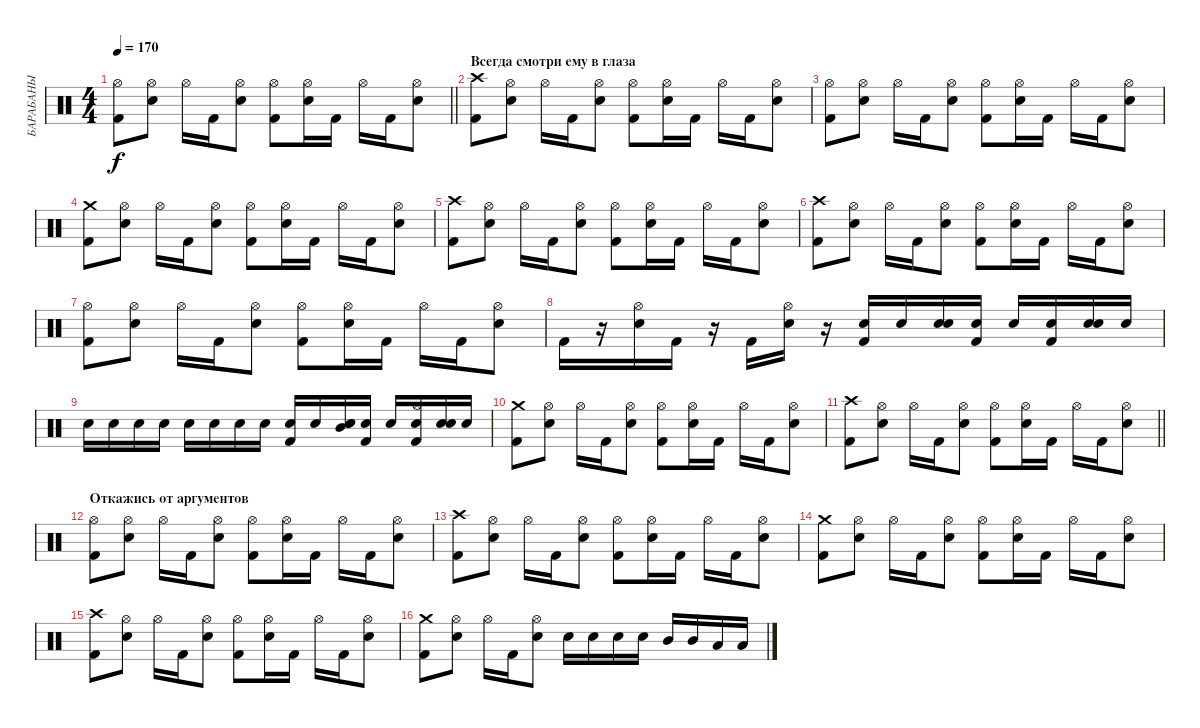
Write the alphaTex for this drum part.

\track ("БАРАБАНЫ" "БАРАБАНЫ") {instrument percussion}
\staff {score}
\articulation defaults
\ts (4 4)
\tempo 170
\clef neutral
\barLineRight lightlight
\ks c
("Kick (hit) 2" "Hi-Hat (open)").8{dy f} ("Electric Snare (hit)" "Hi-Hat (open)").8 "Hi-Hat (open)".16 "Kick (hit) 2".16 ("Electric Snare (hit)" "Hi-Hat (open)").8 ("Kick (hit) 2" "Hi-Hat (open)").8 ("Electric Snare (hit)" "Hi-Hat (open)").16 "Kick (hit) 2".16 "Hi-Hat (open)".16 "Kick (hit) 2".16 ("Electric Snare (hit)" "Hi-Hat (open)").8 |
\section ("" "Всегда смотри ему в глаза")
("Kick (hit) 2" "Crash high (hit)").8 ("Electric Snare (hit)" "Hi-Hat (open)").8 "Hi-Hat (open)".16 "Kick (hit) 2".16 ("Electric Snare (hit)" "Hi-Hat (open)").8 ("Kick (hit) 2" "Hi-Hat (open)").8 ("Electric Snare (hit)" "Hi-Hat (open)").16 "Kick (hit) 2".16 "Hi-Hat (open)".16 "Kick (hit) 2".16 ("Electric Snare (hit)" "Hi-Hat (open)").8 |
("Kick (hit) 2" "Hi-Hat (open)").8 ("Electric Snare (hit)" "Hi-Hat (open)").8 "Hi-Hat (open)".16 "Kick (hit) 2".16 ("Electric Snare (hit)" "Hi-Hat (open)").8 ("Kick (hit) 2" "Hi-Hat (open)").8 ("Electric Snare (hit)" "Hi-Hat (open)").16 "Kick (hit) 2".16 "Hi-Hat (open)".16 "Kick (hit) 2".16 ("Electric Snare (hit)" "Hi-Hat (open)").8 |
("Kick (hit) 2" "Crash medium (hit)").8 ("Electric Snare (hit)" "Hi-Hat (open)").8 "Hi-Hat (open)".16 "Kick (hit) 2".16 ("Electric Snare (hit)" "Hi-Hat (open)").8 ("Kick (hit) 2" "Hi-Hat (open)").8 ("Electric Snare (hit)" "Hi-Hat (open)").16 "Kick (hit) 2".16 "Hi-Hat (open)".16 "Kick (hit) 2".16 ("Electric Snare (hit)" "Hi-Hat (open)").8 |
("Kick (hit) 2" "Crash high (hit)").8 ("Electric Snare (hit)" "Hi-Hat (open)").8 "Hi-Hat (open)".16 "Kick (hit) 2".16 ("Electric Snare (hit)" "Hi-Hat (open)").8 ("Kick (hit) 2" "Hi-Hat (open)").8 ("Electric Snare (hit)" "Hi-Hat (open)").16 "Kick (hit) 2".16 "Hi-Hat (open)".16 "Kick (hit) 2".16 ("Electric Snare (hit)" "Hi-Hat (open)").8 |
("Kick (hit) 2" "Crash high (hit)").8 ("Electric Snare (hit)" "Hi-Hat (open)").8 "Hi-Hat (open)".16 "Kick (hit) 2".16 ("Electric Snare (hit)" "Hi-Hat (open)").8 ("Kick (hit) 2" "Hi-Hat (open)").8 ("Electric Snare (hit)" "Hi-Hat (open)").16 "Kick (hit) 2".16 "Hi-Hat (open)".16 "Kick (hit) 2".16 ("Electric Snare (hit)" "Hi-Hat (open)").8 |
("Kick (hit) 2" "Hi-Hat (open)").8 ("Electric Snare (hit)" "Hi-Hat (open)").8 "Hi-Hat (open)".16 "Kick (hit) 2".16 ("Electric Snare (hit)" "Hi-Hat (open)").8 ("Kick (hit) 2" "Hi-Hat (open)").8 ("Electric Snare (hit)" "Hi-Hat (open)").16 "Kick (hit) 2".16 "Hi-Hat (open)".16 "Kick (hit) 2".16 ("Electric Snare (hit)" "Hi-Hat (open)").8 |
"Kick (hit) 2".16 r.16 ("Electric Snare (hit)" "Hi-Hat (open)").16 "Kick (hit) 2".16 r.16 "Kick (hit) 2".16 ("Electric Snare (hit)" "Hi-Hat (open)").16 r.16 ("Kick (hit) 2" "Electric Snare (hit)").16 "Electric Snare (hit)".16 ("Electric Snare (hit)" "Electric Snare (hit)").16 ("Kick (hit) 2" "Electric Snare (hit)").16 "Electric Snare (hit)".16 ("Kick (hit) 2" "Electric Snare (hit)").16 ("Electric Snare (hit)" "Electric Snare (hit)").16 "Electric Snare (hit)".16 |
"Electric Snare (hit)".16 "Electric Snare (hit)".16 "Electric Snare (hit)".16 "Electric Snare (hit)".16 "Electric Snare (hit)".16 "Electric Snare (hit)".16 "Electric Snare (hit)".16 "Electric Snare (hit)".16 ("Kick (hit) 2" "Electric Snare (hit)").16 "Electric Snare (hit)".16 ("Electric Snare (hit)" "Mid Tom (hit)" "Electric Snare (hit)").16 ("Kick (hit) 2" "Electric Snare (hit)").16 "Electric Snare (hit)".16 ("Kick (hit) 2" "Hi-Hat (open)" "Electric Snare (hit)").16 ("Electric Snare (hit)" "Electric Snare (hit)").16 "Electric Snare (hit)".16 |
("Kick (hit) 2" "Crash medium (hit)").8 ("Electric Snare (hit)" "Hi-Hat (open)").8 "Hi-Hat (open)".16 "Kick (hit) 2".16 ("Electric Snare (hit)" "Hi-Hat (open)").8 ("Kick (hit) 2" "Hi-Hat (open)").8 ("Electric Snare (hit)" "Hi-Hat (open)").16 "Kick (hit) 2".16 "Hi-Hat (open)".16 "Kick (hit) 2".16 ("Electric Snare (hit)" "Hi-Hat (open)").8 |
\barLineRight lightlight
("Kick (hit) 2" "Crash high (hit)").8 ("Electric Snare (hit)" "Hi-Hat (open)").8 "Hi-Hat (open)".16 "Kick (hit) 2".16 ("Electric Snare (hit)" "Hi-Hat (open)").8 ("Kick (hit) 2" "Hi-Hat (open)").8 ("Electric Snare (hit)" "Hi-Hat (open)").16 "Kick (hit) 2".16 "Hi-Hat (open)".16 "Kick (hit) 2".16 ("Electric Snare (hit)" "Hi-Hat (open)").8 |
\section ("" "Откажись от аргументов")
("Kick (hit) 2" "Hi-Hat (open)").8 ("Electric Snare (hit)" "Hi-Hat (open)").8 "Hi-Hat (open)".16 "Kick (hit) 2".16 ("Electric Snare (hit)" "Hi-Hat (open)").8 ("Kick (hit) 2" "Hi-Hat (open)").8 ("Electric Snare (hit)" "Hi-Hat (open)").16 "Kick (hit) 2".16 "Hi-Hat (open)".16 "Kick (hit) 2".16 ("Electric Snare (hit)" "Hi-Hat (open)").8 |
("Kick (hit) 2" "Crash high (hit)").8 ("Electric Snare (hit)" "Hi-Hat (open)").8 "Hi-Hat (open)".16 "Kick (hit) 2".16 ("Electric Snare (hit)" "Hi-Hat (open)").8 ("Kick (hit) 2" "Hi-Hat (open)").8 ("Electric Snare (hit)" "Hi-Hat (open)").16 "Kick (hit) 2".16 "Hi-Hat (open)".16 "Kick (hit) 2".16 ("Electric Snare (hit)" "Hi-Hat (open)").8 |
("Kick (hit) 2" "Crash medium (hit)").8 ("Electric Snare (hit)" "Hi-Hat (open)").8 "Hi-Hat (open)".16 "Kick (hit) 2".16 ("Electric Snare (hit)" "Hi-Hat (open)").8 ("Kick (hit) 2" "Hi-Hat (open)").8 ("Electric Snare (hit)" "Hi-Hat (open)").16 "Kick (hit) 2".16 "Hi-Hat (open)".16 "Kick (hit) 2".16 ("Electric Snare (hit)" "Hi-Hat (open)").8 |
("Kick (hit) 2" "Crash high (hit)").8 ("Electric Snare (hit)" "Hi-Hat (open)").8 "Hi-Hat (open)".16 "Kick (hit) 2".16 ("Electric Snare (hit)" "Hi-Hat (open)").8 ("Kick (hit) 2" "Hi-Hat (open)").8 ("Electric Snare (hit)" "Hi-Hat (open)").16 "Kick (hit) 2".16 "Hi-Hat (open)".16 "Kick (hit) 2".16 ("Electric Snare (hit)" "Hi-Hat (open)").8 |
("Kick (hit) 2" "Crash medium (hit)").8 ("Electric Snare (hit)" "Hi-Hat (open)").8 "Hi-Hat (open)".16 "Kick (hit) 2".16 ("Electric Snare (hit)" "Hi-Hat (open)").8 "Electric Snare (hit)".16 "Electric Snare (hit)".16 "Electric Snare (hit)".16 "Electric Snare (hit)".16 "Mid Tom (hit)".16 "Mid Tom (hit)".16 "Low Tom (hit)".16 "Low Tom (hit)".16
